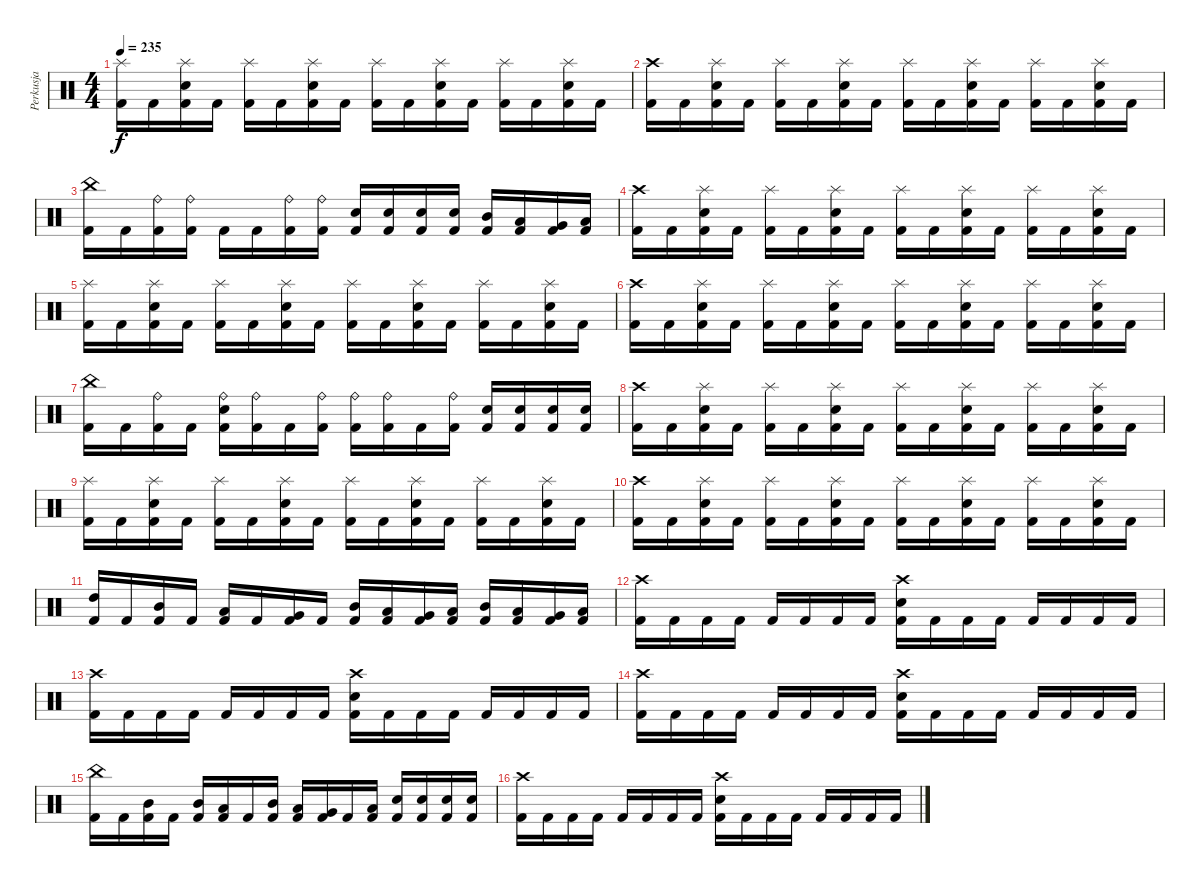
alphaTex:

\track ("Perkusja" "Perkusja") {instrument percussion}
\staff {score}
\articulation defaults
\ts (4 4)
\tempo 235
\clef neutral
\ks c
("Splash (hit)" "Kick (hit) 2").16{dy f} "Kick (hit) 2".16 ("Splash (hit)" "Snare (hit) 2" "Kick (hit) 2").16 "Kick (hit) 2".16 ("Splash (hit)" "Kick (hit) 2").16 "Kick (hit) 2".16 ("Splash (hit)" "Snare (hit) 2" "Kick (hit) 2").16 "Kick (hit) 2".16 ("Splash (hit)" "Kick (hit) 2").16 "Kick (hit) 2".16 ("Splash (hit)" "Snare (hit) 2" "Kick (hit) 2").16 "Kick (hit) 2".16 ("Splash (hit)" "Kick (hit) 2").16 "Kick (hit) 2".16 ("Splash (hit)" "Snare (hit) 2" "Kick (hit) 2").16 "Kick (hit) 2".16 |
("Crash high (hit)" "Kick (hit) 2").16 "Kick (hit) 2".16 ("Splash (hit)" "Snare (hit) 2" "Kick (hit) 2").16 "Kick (hit) 2".16 ("Splash (hit)" "Kick (hit) 2").16 "Kick (hit) 2".16 ("Splash (hit)" "Snare (hit) 2" "Kick (hit) 2").16 "Kick (hit) 2".16 ("Splash (hit)" "Kick (hit) 2").16 "Kick (hit) 2".16 ("Splash (hit)" "Snare (hit) 2" "Kick (hit) 2").16 "Kick (hit) 2".16 ("Splash (hit)" "Kick (hit) 2").16 "Kick (hit) 2".16 ("Splash (hit)" "Snare (hit) 2" "Kick (hit) 2").16 "Kick (hit) 2".16 |
("China (hit)" "Kick (hit) 2").16 "Kick (hit) 2".16 ("Ride (bell)" "Kick (hit) 2").16 ("Ride (bell)" "Kick (hit) 2").16 "Kick (hit) 2".16 "Kick (hit) 2".16 ("Ride (bell)" "Kick (hit) 2").16 ("Ride (bell)" "Kick (hit) 2").16 ("Electric Snare (hit)" "Kick (hit) 2").16 ("Electric Snare (hit)" "Kick (hit) 2").16 ("Electric Snare (hit)" "Kick (hit) 2").16 ("Electric Snare (hit)" "Kick (hit) 2").16 ("Mid Tom (hit)" "Kick (hit) 2").16 ("Low Tom (hit)" "Kick (hit) 2").16 ("Very Low Tom (hit)" "Kick (hit) 2").16 ("Low Floor Tom (hit)" "Kick (hit) 2").16 |
("Crash high (hit)" "Kick (hit) 2").16 "Kick (hit) 2".16 ("Splash (hit)" "Snare (hit) 2" "Kick (hit) 2").16 "Kick (hit) 2".16 ("Splash (hit)" "Kick (hit) 2").16 "Kick (hit) 2".16 ("Splash (hit)" "Snare (hit) 2" "Kick (hit) 2").16 "Kick (hit) 2".16 ("Splash (hit)" "Kick (hit) 2").16 "Kick (hit) 2".16 ("Splash (hit)" "Snare (hit) 2" "Kick (hit) 2").16 "Kick (hit) 2".16 ("Splash (hit)" "Kick (hit) 2").16 "Kick (hit) 2".16 ("Splash (hit)" "Snare (hit) 2" "Kick (hit) 2").16 "Kick (hit) 2".16 |
("Splash (hit)" "Kick (hit) 2").16 "Kick (hit) 2".16 ("Splash (hit)" "Snare (hit) 2" "Kick (hit) 2").16 "Kick (hit) 2".16 ("Splash (hit)" "Kick (hit) 2").16 "Kick (hit) 2".16 ("Splash (hit)" "Snare (hit) 2" "Kick (hit) 2").16 "Kick (hit) 2".16 ("Splash (hit)" "Kick (hit) 2").16 "Kick (hit) 2".16 ("Splash (hit)" "Snare (hit) 2" "Kick (hit) 2").16 "Kick (hit) 2".16 ("Splash (hit)" "Kick (hit) 2").16 "Kick (hit) 2".16 ("Splash (hit)" "Snare (hit) 2" "Kick (hit) 2").16 "Kick (hit) 2".16 |
("Crash high (hit)" "Kick (hit) 2").16 "Kick (hit) 2".16 ("Splash (hit)" "Snare (hit) 2" "Kick (hit) 2").16 "Kick (hit) 2".16 ("Splash (hit)" "Kick (hit) 2").16 "Kick (hit) 2".16 ("Splash (hit)" "Snare (hit) 2" "Kick (hit) 2").16 "Kick (hit) 2".16 ("Splash (hit)" "Kick (hit) 2").16 "Kick (hit) 2".16 ("Splash (hit)" "Snare (hit) 2" "Kick (hit) 2").16 "Kick (hit) 2".16 ("Splash (hit)" "Kick (hit) 2").16 "Kick (hit) 2".16 ("Splash (hit)" "Snare (hit) 2" "Kick (hit) 2").16 "Kick (hit) 2".16 |
("China (hit)" "Kick (hit) 2").16 "Kick (hit) 2".16 ("Ride (bell)" "Kick (hit) 2").16 "Kick (hit) 2".16 ("Ride (bell)" "Electric Snare (hit)" "Kick (hit) 2").16 ("Ride (bell)" "Kick (hit) 2").16 "Kick (hit) 2".16 ("Ride (bell)" "Kick (hit) 2").16 ("Ride (bell)" "Kick (hit) 2").16 ("Ride (bell)" "Kick (hit) 2").16 "Kick (hit) 2".16 ("Ride (bell)" "Kick (hit) 2").16 ("Snare (hit) 2" "Kick (hit) 2").16 ("Snare (hit) 2" "Kick (hit) 2").16 ("Snare (hit) 2" "Kick (hit) 2").16 ("Snare (hit) 2" "Kick (hit) 2").16 |
("Crash high (hit)" "Kick (hit) 2").16 "Kick (hit) 2".16 ("Splash (hit)" "Snare (hit) 2" "Kick (hit) 2").16 "Kick (hit) 2".16 ("Splash (hit)" "Kick (hit) 2").16 "Kick (hit) 2".16 ("Splash (hit)" "Snare (hit) 2" "Kick (hit) 2").16 "Kick (hit) 2".16 ("Splash (hit)" "Kick (hit) 2").16 "Kick (hit) 2".16 ("Splash (hit)" "Snare (hit) 2" "Kick (hit) 2").16 "Kick (hit) 2".16 ("Splash (hit)" "Kick (hit) 2").16 "Kick (hit) 2".16 ("Splash (hit)" "Snare (hit) 2" "Kick (hit) 2").16 "Kick (hit) 2".16 |
("Splash (hit)" "Kick (hit) 2").16 "Kick (hit) 2".16 ("Splash (hit)" "Snare (hit) 2" "Kick (hit) 2").16 "Kick (hit) 2".16 ("Splash (hit)" "Kick (hit) 2").16 "Kick (hit) 2".16 ("Splash (hit)" "Snare (hit) 2" "Kick (hit) 2").16 "Kick (hit) 2".16 ("Splash (hit)" "Kick (hit) 2").16 "Kick (hit) 2".16 ("Splash (hit)" "Snare (hit) 2" "Kick (hit) 2").16 "Kick (hit) 2".16 ("Splash (hit)" "Kick (hit) 2").16 "Kick (hit) 2".16 ("Splash (hit)" "Snare (hit) 2" "Kick (hit) 2").16 "Kick (hit) 2".16 |
("Crash high (hit)" "Kick (hit) 2").16 "Kick (hit) 2".16 ("Splash (hit)" "Snare (hit) 2" "Kick (hit) 2").16 "Kick (hit) 2".16 ("Splash (hit)" "Kick (hit) 2").16 "Kick (hit) 2".16 ("Splash (hit)" "Snare (hit) 2" "Kick (hit) 2").16 "Kick (hit) 2".16 ("Splash (hit)" "Kick (hit) 2").16 "Kick (hit) 2".16 ("Splash (hit)" "Snare (hit) 2" "Kick (hit) 2").16 "Kick (hit) 2".16 ("Splash (hit)" "Kick (hit) 2").16 "Kick (hit) 2".16 ("Splash (hit)" "Snare (hit) 2" "Kick (hit) 2").16 "Kick (hit) 2".16 |
("High Tom (hit)" "Kick (hit) 2").16 "Kick (hit) 2".16 ("Mid Tom (hit)" "Kick (hit) 2").16 "Kick (hit) 2".16 ("Low Tom (hit)" "Kick (hit) 2").16 "Kick (hit) 2".16 ("Very Low Tom (hit)" "Kick (hit) 2").16 "Kick (hit) 2".16 ("Mid Tom (hit)" "Kick (hit) 2").16 ("Low Tom (hit)" "Kick (hit) 2").16 ("Very Low Tom (hit)" "Kick (hit) 2").16 ("Low Floor Tom (hit)" "Kick (hit) 2").16 ("Mid Tom (hit)" "Kick (hit) 2").16 ("Low Tom (hit)" "Kick (hit) 2").16 ("Very Low Tom (hit)" "Kick (hit) 2").16 ("Low Floor Tom (hit)" "Kick (hit) 2").16 |
("Crash high (hit)" "Kick (hit) 2").16 "Kick (hit) 2".16 "Kick (hit) 2".16 "Kick (hit) 2".16 "Kick (hit) 2".16 "Kick (hit) 2".16 "Kick (hit) 2".16 "Kick (hit) 2".16 ("Crash high (hit)" "Snare (hit) 2" "Kick (hit) 2").16 "Kick (hit) 2".16 "Kick (hit) 2".16 "Kick (hit) 2".16 "Kick (hit) 2".16 "Kick (hit) 2".16 "Kick (hit) 2".16 "Kick (hit) 2".16 |
("Crash high (hit)" "Kick (hit) 2").16 "Kick (hit) 2".16 "Kick (hit) 2".16 "Kick (hit) 2".16 "Kick (hit) 2".16 "Kick (hit) 2".16 "Kick (hit) 2".16 "Kick (hit) 2".16 ("Crash high (hit)" "Snare (hit) 2" "Kick (hit) 2").16 "Kick (hit) 2".16 "Kick (hit) 2".16 "Kick (hit) 2".16 "Kick (hit) 2".16 "Kick (hit) 2".16 "Kick (hit) 2".16 "Kick (hit) 2".16 |
("Crash high (hit)" "Kick (hit) 2").16 "Kick (hit) 2".16 "Kick (hit) 2".16 "Kick (hit) 2".16 "Kick (hit) 2".16 "Kick (hit) 2".16 "Kick (hit) 2".16 "Kick (hit) 2".16 ("Crash high (hit)" "Snare (hit) 2" "Kick (hit) 2").16 "Kick (hit) 2".16 "Kick (hit) 2".16 "Kick (hit) 2".16 "Kick (hit) 2".16 "Kick (hit) 2".16 "Kick (hit) 2".16 "Kick (hit) 2".16 |
("China (hit)" "Kick (hit) 2").16 "Kick (hit) 2".16 ("Mid Tom (hit)" "Kick (hit) 2").16 "Kick (hit) 2".16 ("Mid Tom (hit)" "Kick (hit) 2").16 ("Low Tom (hit)" "Kick (hit) 2").16 "Kick (hit) 2".16 ("Mid Tom (hit)" "Kick (hit) 2").16 ("Low Tom (hit)" "Kick (hit) 2").16 ("Very Low Tom (hit)" "Kick (hit) 2").16 "Kick (hit) 2".16 ("Low Floor Tom (hit)" "Kick (hit) 2").16 ("Snare (hit) 2" "Kick (hit) 2").16 ("Snare (hit) 2" "Kick (hit) 2").16 ("Snare (hit) 2" "Kick (hit) 2").16 ("Snare (hit) 2" "Kick (hit) 2").16 |
("Crash high (hit)" "Kick (hit) 2").16 "Kick (hit) 2".16 "Kick (hit) 2".16 "Kick (hit) 2".16 "Kick (hit) 2".16 "Kick (hit) 2".16 "Kick (hit) 2".16 "Kick (hit) 2".16 ("Crash high (hit)" "Snare (hit) 2" "Kick (hit) 2").16 "Kick (hit) 2".16 "Kick (hit) 2".16 "Kick (hit) 2".16 "Kick (hit) 2".16 "Kick (hit) 2".16 "Kick (hit) 2".16 "Kick (hit) 2".16
